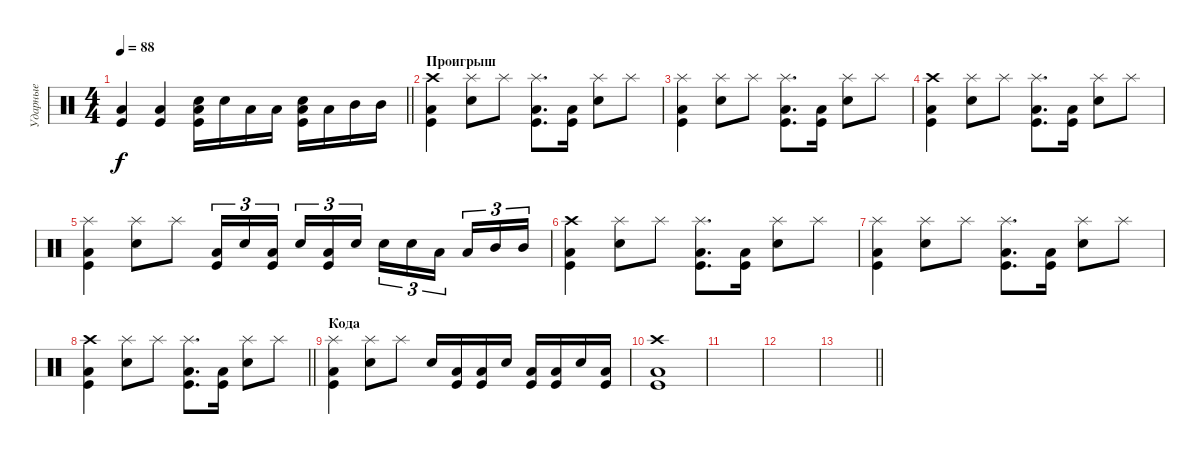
\track ("Ударные" "Ударные") {instrument percussion}
\staff {score}
\articulation defaults
\ts (4 4)
\tempo 88
\clef neutral
\barLineRight lightlight
\ks c
("Low Tom (hit)" "Kick (hit)").4{dy f} ("Low Tom (hit)" "Kick (hit)").4 ("Electric Snare (hit)" "Low Tom (hit)" "Kick (hit)").16 "Electric Snare (hit)".16 "Low Tom (hit)".16 "Low Tom (hit)".16 ("Electric Snare (hit)" "Low Tom (hit)" "Kick (hit)").16 "Low Tom (hit)".16 "Mid Tom (hit)".16 "Mid Tom (hit)".16 |
\section ("" "Проигрыш")
("Crash high (hit)" "Low Tom (hit)" "Kick (hit)").4 ("Splash (hit)" "Electric Snare (hit)").8 "Splash (hit)".8 ("Splash (hit)" "Low Tom (hit)" "Kick (hit)").8{d} ("Low Tom (hit)" "Kick (hit)").16 ("Splash (hit)" "Electric Snare (hit)").8 "Splash (hit)".8 |
("Splash (hit)" "Low Tom (hit)" "Kick (hit)").4 ("Splash (hit)" "Electric Snare (hit)").8 "Splash (hit)".8 ("Splash (hit)" "Low Tom (hit)" "Kick (hit)").8{d} ("Low Tom (hit)" "Kick (hit)").16 ("Splash (hit)" "Electric Snare (hit)").8 "Splash (hit)".8 |
("Crash high (hit)" "Low Tom (hit)" "Kick (hit)").4 ("Splash (hit)" "Electric Snare (hit)").8 "Splash (hit)".8 ("Splash (hit)" "Low Tom (hit)" "Kick (hit)").8{d} ("Low Tom (hit)" "Kick (hit)").16 ("Splash (hit)" "Electric Snare (hit)").8 "Splash (hit)".8 |
("Splash (hit)" "Low Tom (hit)" "Kick (hit)").4 ("Splash (hit)" "Electric Snare (hit)").8 "Splash (hit)".8 ("Low Tom (hit)" "Kick (hit)").16{tu (3 2)} "Electric Snare (hit)".16{tu (3 2)} ("Low Tom (hit)" "Kick (hit)").16{tu (3 2) beam splitsecondary} "Electric Snare (hit)".16{tu (3 2)} ("Low Tom (hit)" "Kick (hit)").16{tu (3 2)} "Electric Snare (hit)".16{tu (3 2)} "Electric Snare (hit)".16{tu (3 2)} "Electric Snare (hit)".16{tu (3 2)} "Low Tom (hit)".16{tu (3 2) beam splitsecondary} "Low Tom (hit)".16{tu (3 2)} "Mid Tom (hit)".16{tu (3 2)} "Mid Tom (hit)".16{tu (3 2)} |
("Crash high (hit)" "Low Tom (hit)" "Kick (hit)").4 ("Splash (hit)" "Electric Snare (hit)").8 "Splash (hit)".8 ("Splash (hit)" "Low Tom (hit)" "Kick (hit)").8{d} ("Low Tom (hit)" "Kick (hit)").16 ("Splash (hit)" "Electric Snare (hit)").8 "Splash (hit)".8 |
("Splash (hit)" "Low Tom (hit)" "Kick (hit)").4 ("Splash (hit)" "Electric Snare (hit)").8 "Splash (hit)".8 ("Splash (hit)" "Low Tom (hit)" "Kick (hit)").8{d} ("Low Tom (hit)" "Kick (hit)").16 ("Splash (hit)" "Electric Snare (hit)").8 "Splash (hit)".8 |
\barLineRight lightlight
("Crash high (hit)" "Low Tom (hit)" "Kick (hit)").4 ("Splash (hit)" "Electric Snare (hit)").8 "Splash (hit)".8 ("Splash (hit)" "Low Tom (hit)" "Kick (hit)").8{d} ("Low Tom (hit)" "Kick (hit)").16 ("Splash (hit)" "Electric Snare (hit)").8 "Splash (hit)".8 |
\section ("" "Кода")
("Splash (hit)" "Low Tom (hit)" "Kick (hit)").4 ("Splash (hit)" "Electric Snare (hit)").8 "Splash (hit)".8 "Electric Snare (hit)".16 ("Low Tom (hit)" "Kick (hit)").16 ("Low Tom (hit)" "Kick (hit)").16 "Electric Snare (hit)".16 ("Low Tom (hit)" "Kick (hit)").16 ("Low Tom (hit)" "Kick (hit)").16 "Electric Snare (hit)".16 ("Low Tom (hit)" "Kick (hit)").16 |
("Crash high (hit)" "Low Tom (hit)" "Kick (hit)").1 |
|
|
\barLineRight lightlight
